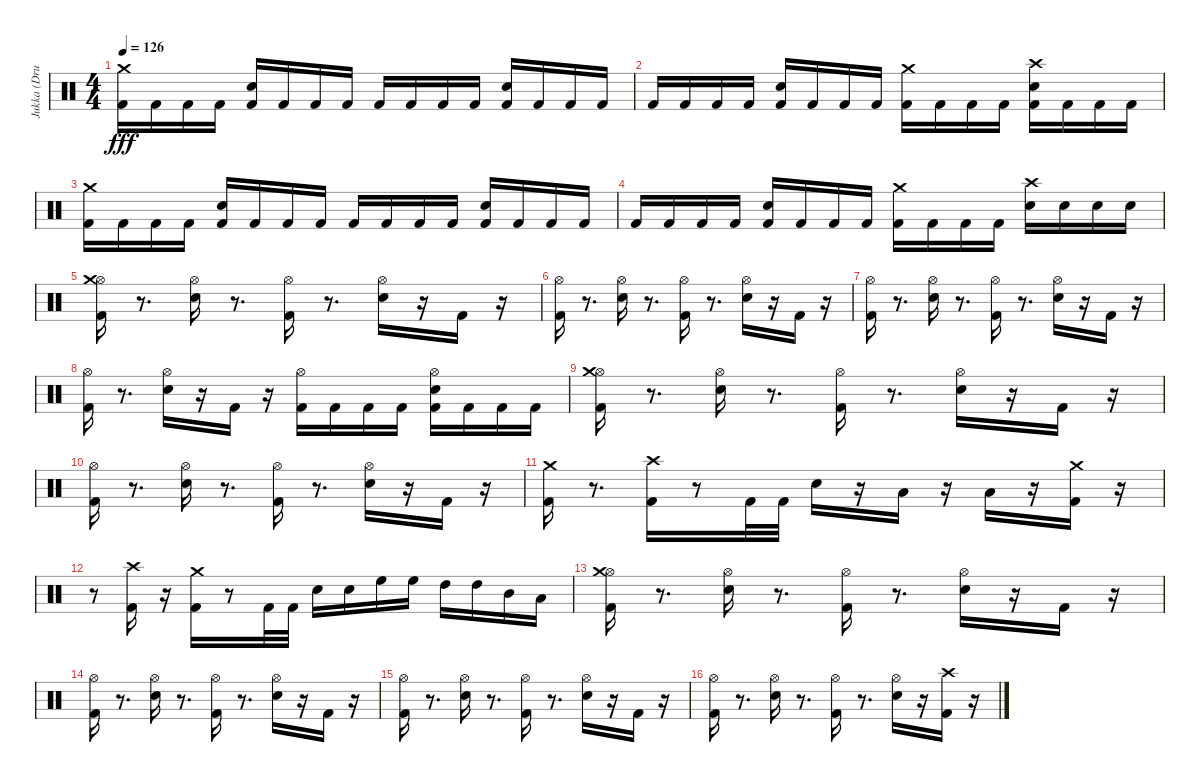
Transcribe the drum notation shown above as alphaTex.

\track ("Jukka (Drums)" "Jukka (Dru") {instrument percussion}
\staff {score}
\articulation defaults
\ts (4 4)
\tempo 126
\clef neutral
\ks c
("Kick (hit) 2" "Crash medium (hit)").16{dy fff} "Kick (hit) 2".16 "Kick (hit) 2".16 "Kick (hit) 2".16 ("Kick (hit) 2" "Electric Snare (hit)").16 "Kick (hit) 2".16 "Kick (hit) 2".16 "Kick (hit) 2".16 "Kick (hit) 2".16 "Kick (hit) 2".16 "Kick (hit) 2".16 "Kick (hit) 2".16 ("Kick (hit) 2" "Electric Snare (hit)").16 "Kick (hit) 2".16 "Kick (hit) 2".16 "Kick (hit) 2".16 |
"Kick (hit) 2".16 "Kick (hit) 2".16 "Kick (hit) 2".16 "Kick (hit) 2".16 ("Kick (hit) 2" "Electric Snare (hit)").16 "Kick (hit) 2".16 "Kick (hit) 2".16 "Kick (hit) 2".16 ("Kick (hit) 2" "Crash medium (hit)").16 "Kick (hit) 2".16 "Kick (hit) 2".16 "Kick (hit) 2".16 ("Kick (hit) 2" "Electric Snare (hit)" "Crash high (hit)").16 "Kick (hit) 2".16 "Kick (hit) 2".16 "Kick (hit) 2".16 |
("Kick (hit) 2" "Crash medium (hit)").16 "Kick (hit) 2".16 "Kick (hit) 2".16 "Kick (hit) 2".16 ("Kick (hit) 2" "Electric Snare (hit)").16 "Kick (hit) 2".16 "Kick (hit) 2".16 "Kick (hit) 2".16 "Kick (hit) 2".16 "Kick (hit) 2".16 "Kick (hit) 2".16 "Kick (hit) 2".16 ("Kick (hit) 2" "Electric Snare (hit)").16 "Kick (hit) 2".16 "Kick (hit) 2".16 "Kick (hit) 2".16 |
"Kick (hit) 2".16 "Kick (hit) 2".16 "Kick (hit) 2".16 "Kick (hit) 2".16 ("Kick (hit) 2" "Electric Snare (hit)").16 "Kick (hit) 2".16 "Kick (hit) 2".16 "Kick (hit) 2".16 ("Kick (hit) 2" "Crash medium (hit)").16 "Kick (hit) 2".16 "Kick (hit) 2".16 "Kick (hit) 2".16 ("Electric Snare (hit)" "Crash high (hit)").16 "Electric Snare (hit)".16 "Electric Snare (hit)".16 "Electric Snare (hit)".16 |
("Kick (hit) 2" "Hi-Hat (open)" "Crash medium (hit)").16 r.8{d} ("Electric Snare (hit)" "Hi-Hat (open)").16 r.8{d} ("Kick (hit) 2" "Hi-Hat (open)").16 r.8{d} ("Electric Snare (hit)" "Hi-Hat (open)").16 r.16 "Kick (hit) 2".16 r.16 |
("Kick (hit) 2" "Hi-Hat (open)").16 r.8{d} ("Electric Snare (hit)" "Hi-Hat (open)").16 r.8{d} ("Kick (hit) 2" "Hi-Hat (open)").16 r.8{d} ("Electric Snare (hit)" "Hi-Hat (open)").16 r.16 "Kick (hit) 2".16 r.16 |
("Kick (hit) 2" "Hi-Hat (open)").16 r.8{d} ("Electric Snare (hit)" "Hi-Hat (open)").16 r.8{d} ("Kick (hit) 2" "Hi-Hat (open)").16 r.8{d} ("Electric Snare (hit)" "Hi-Hat (open)").16 r.16 "Kick (hit) 2".16 r.16 |
("Kick (hit) 2" "Hi-Hat (open)").16 r.8{d} ("Electric Snare (hit)" "Hi-Hat (open)").16 r.16 "Kick (hit) 2".16 r.16 ("Kick (hit) 2" "Hi-Hat (open)").16 "Kick (hit) 2".16 "Kick (hit) 2".16 "Kick (hit) 2".16 ("Electric Snare (hit)" "Kick (hit) 2" "Hi-Hat (open)").16 "Kick (hit) 2".16 "Kick (hit) 2".16 "Kick (hit) 2".16 |
("Kick (hit) 2" "Hi-Hat (open)" "Crash medium (hit)").16 r.8{d} ("Electric Snare (hit)" "Hi-Hat (open)").16 r.8{d} ("Kick (hit) 2" "Hi-Hat (open)").16 r.8{d} ("Electric Snare (hit)" "Hi-Hat (open)").16 r.16 "Kick (hit) 2".16 r.16 |
("Kick (hit) 2" "Hi-Hat (open)").16 r.8{d} ("Electric Snare (hit)" "Hi-Hat (open)").16 r.8{d} ("Kick (hit) 2" "Hi-Hat (open)").16 r.8{d} ("Electric Snare (hit)" "Hi-Hat (open)").16 r.16 "Kick (hit) 2".16 r.16 |
("Kick (hit) 2" "Crash medium (hit)").16 r.8{d} ("Kick (hit) 2" "Crash high (hit)").16 r.8 "Kick (hit) 2".32 "Kick (hit) 2".32 "Electric Snare (hit)".16 r.16 "Low Tom (hit)".16 r.16 "Low Floor Tom (hit)".16 r.16 ("Kick (hit) 2" "Crash medium (hit)").16 r.16 |
r.8 ("Kick (hit) 2" "Crash high (hit)").16 r.16 ("Kick (hit) 2" "Crash medium (hit)").16 r.8 "Kick (hit) 2".32 "Kick (hit) 2".32 "Electric Snare (hit)".16 "Electric Snare (hit)".16 "High Floor Tom (hit)".16 "High Floor Tom (hit)".16 "High Tom (hit)".16 "High Tom (hit)".16 "Mid Tom (hit)".16 "Low Tom (hit)".16 |
("Kick (hit) 2" "Hi-Hat (open)" "Crash medium (hit)").16 r.8{d} ("Electric Snare (hit)" "Hi-Hat (open)").16 r.8{d} ("Kick (hit) 2" "Hi-Hat (open)").16 r.8{d} ("Electric Snare (hit)" "Hi-Hat (open)").16 r.16 "Kick (hit) 2".16 r.16 |
("Kick (hit) 2" "Hi-Hat (open)").16 r.8{d} ("Electric Snare (hit)" "Hi-Hat (open)").16 r.8{d} ("Kick (hit) 2" "Hi-Hat (open)").16 r.8{d} ("Electric Snare (hit)" "Hi-Hat (open)").16 r.16 "Kick (hit) 2".16 r.16 |
("Kick (hit) 2" "Hi-Hat (open)").16 r.8{d} ("Electric Snare (hit)" "Hi-Hat (open)").16 r.8{d} ("Kick (hit) 2" "Hi-Hat (open)").16 r.8{d} ("Electric Snare (hit)" "Hi-Hat (open)").16 r.16 "Kick (hit) 2".16 r.16 |
("Kick (hit) 2" "Hi-Hat (open)").16 r.8{d} ("Electric Snare (hit)" "Hi-Hat (open)").16 r.8{d} ("Kick (hit) 2" "Hi-Hat (open)").16 r.8{d} ("Electric Snare (hit)" "Hi-Hat (open)").16 r.16 ("Kick (hit) 2" "Crash high (hit)").16 r.16
